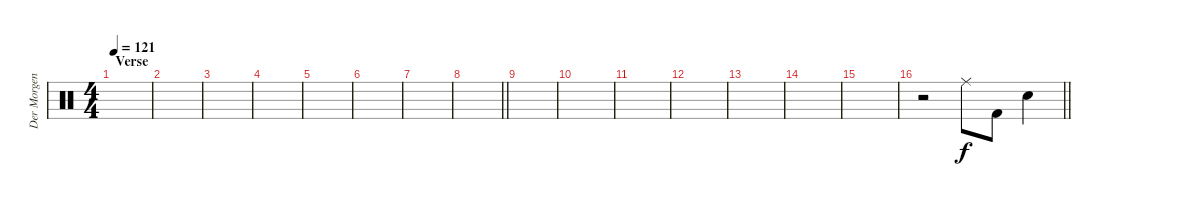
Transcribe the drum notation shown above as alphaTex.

\track ("Der Morgenstern" "Der Morgen") {instrument percussion}
\staff {score}
\articulation defaults
\ts (4 4)
\section ("" "Verse")
\tempo 121
\clef neutral
\ks c
|
|
|
|
|
|
|
\barLineRight lightlight
|
|
|
|
|
|
|
|
\barLineRight lightlight
r.2 "Ride (middle)".8 "Kick (hit) 2".8 "Electric Snare (hit)".4
